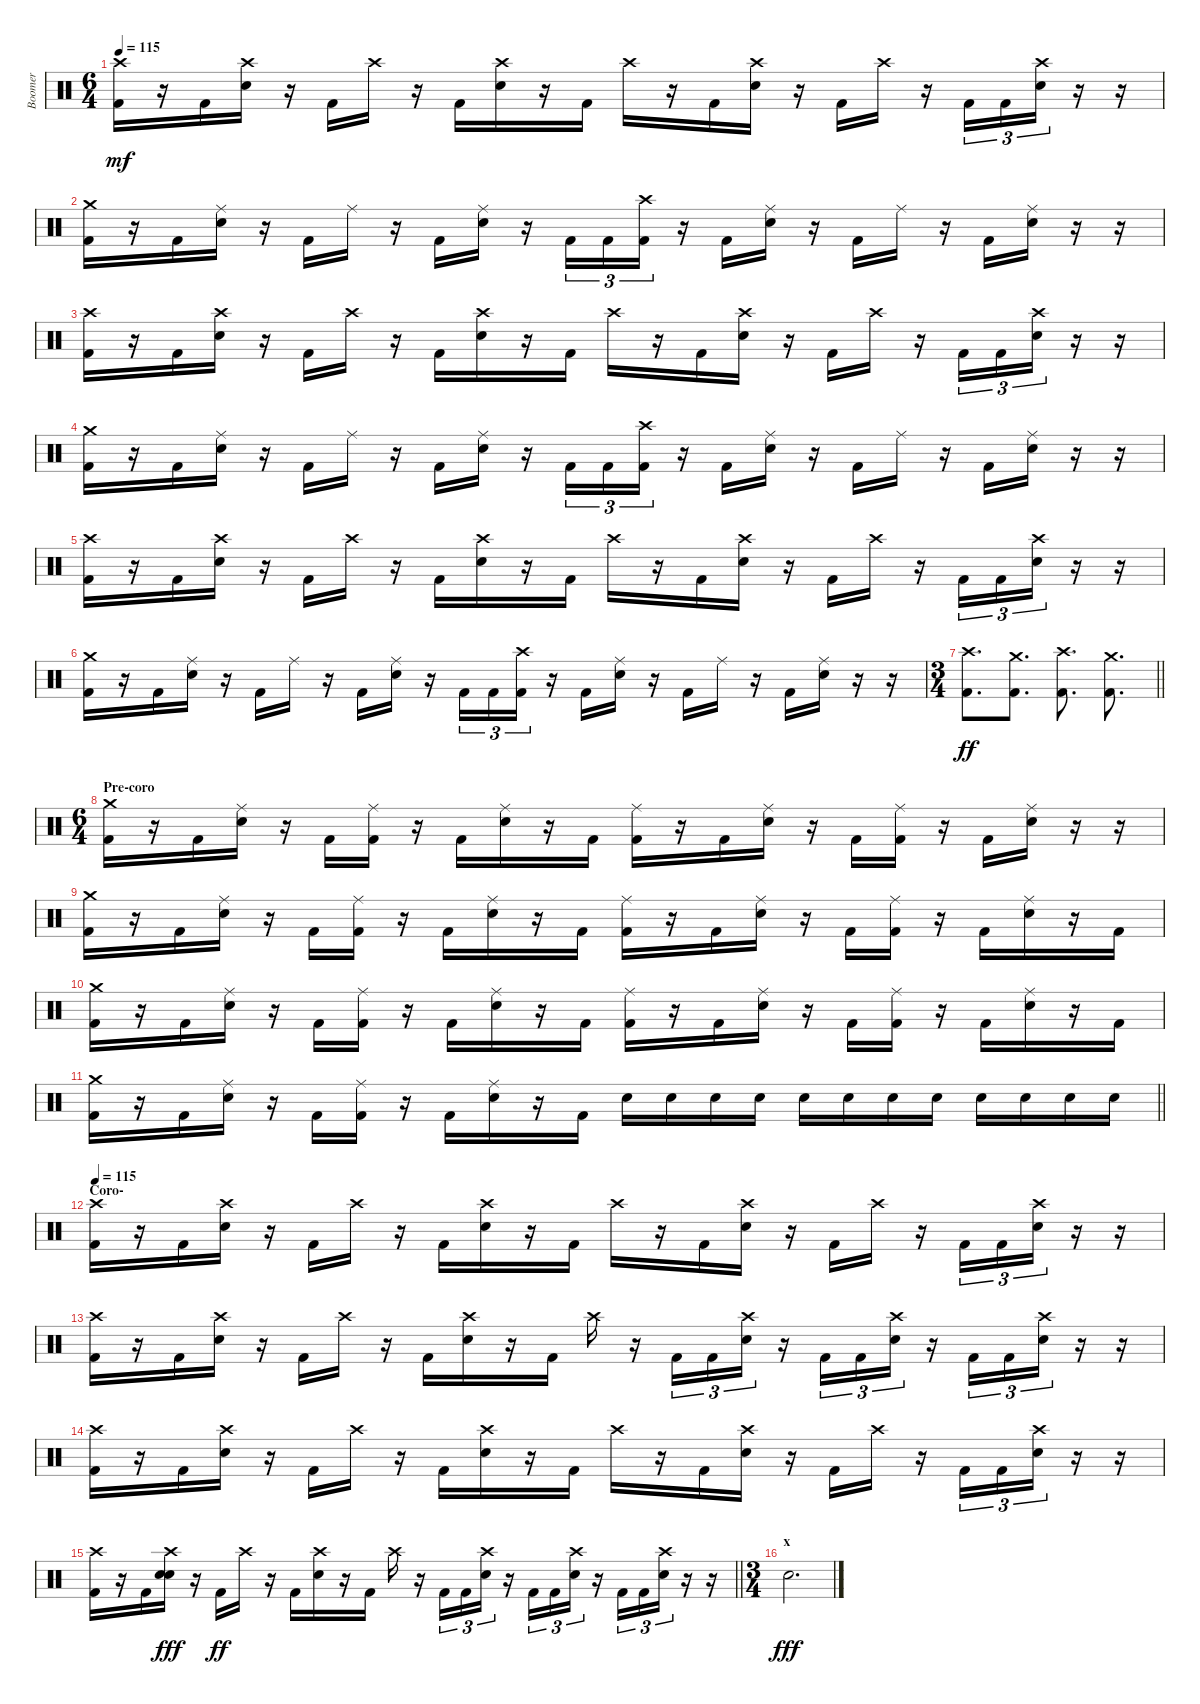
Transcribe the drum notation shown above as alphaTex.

\track ("Boomer" "Boomer") {instrument percussion}
\staff {score}
\articulation defaults
\ts (6 4)
\tempo 115
\clef neutral
\ks c
("Crash high (hit)" "Kick (hit) 2").16{dy mf} r.16 "Kick (hit) 2".16 ("Crash high (hit)" "Electric Snare (hit)").16 r.16 "Kick (hit) 2".16 "Crash high (hit)".16 r.16 "Kick (hit) 2".16 ("Crash high (hit)" "Electric Snare (hit)").16 r.16 "Kick (hit) 2".16 "Crash high (hit)".16 r.16 "Kick (hit) 2".16 ("Crash high (hit)" "Electric Snare (hit)").16 r.16 "Kick (hit) 2".16 "Crash high (hit)".16 r.16 "Kick (hit) 2".16{tu (3 2)} "Kick (hit) 2".16{tu (3 2)} ("Crash high (hit)" "Electric Snare (hit)").16{tu (3 2)} r.16 r.16 |
("Crash medium (hit)" "Kick (hit) 2").16 r.16 "Kick (hit) 2".16 ("Ride (middle)" "Electric Snare (hit)").16 r.16 "Kick (hit) 2".16 "Ride (middle)".16 r.16 "Kick (hit) 2".16 ("Ride (middle)" "Electric Snare (hit)").16 r.16 "Kick (hit) 2".16{tu (3 2)} "Kick (hit) 2".16{tu (3 2)} ("Crash high (hit)" "Kick (hit) 2").16{tu (3 2)} r.16 "Kick (hit) 2".16 ("Ride (middle)" "Electric Snare (hit)").16 r.16 "Kick (hit) 2".16 "Ride (middle)".16 r.16 "Kick (hit) 2".16 ("Ride (middle)" "Electric Snare (hit)").16 r.16 r.16 |
("Crash high (hit)" "Kick (hit) 2").16 r.16 "Kick (hit) 2".16 ("Crash high (hit)" "Electric Snare (hit)").16 r.16 "Kick (hit) 2".16 "Crash high (hit)".16 r.16 "Kick (hit) 2".16 ("Crash high (hit)" "Electric Snare (hit)").16 r.16 "Kick (hit) 2".16 "Crash high (hit)".16 r.16 "Kick (hit) 2".16 ("Crash high (hit)" "Electric Snare (hit)").16 r.16 "Kick (hit) 2".16 "Crash high (hit)".16 r.16 "Kick (hit) 2".16{tu (3 2)} "Kick (hit) 2".16{tu (3 2)} ("Crash high (hit)" "Electric Snare (hit)").16{tu (3 2)} r.16 r.16 |
("Crash medium (hit)" "Kick (hit) 2").16 r.16 "Kick (hit) 2".16 ("Ride (middle)" "Electric Snare (hit)").16 r.16 "Kick (hit) 2".16 "Ride (middle)".16 r.16 "Kick (hit) 2".16 ("Ride (middle)" "Electric Snare (hit)").16 r.16 "Kick (hit) 2".16{tu (3 2)} "Kick (hit) 2".16{tu (3 2)} ("Crash high (hit)" "Kick (hit) 2").16{tu (3 2)} r.16 "Kick (hit) 2".16 ("Ride (middle)" "Electric Snare (hit)").16 r.16 "Kick (hit) 2".16 "Ride (middle)".16 r.16 "Kick (hit) 2".16 ("Ride (middle)" "Electric Snare (hit)").16 r.16 r.16 |
("Crash high (hit)" "Kick (hit) 2").16 r.16 "Kick (hit) 2".16 ("Crash high (hit)" "Electric Snare (hit)").16 r.16 "Kick (hit) 2".16 "Crash high (hit)".16 r.16 "Kick (hit) 2".16 ("Crash high (hit)" "Electric Snare (hit)").16 r.16 "Kick (hit) 2".16 "Crash high (hit)".16 r.16 "Kick (hit) 2".16 ("Crash high (hit)" "Electric Snare (hit)").16 r.16 "Kick (hit) 2".16 "Crash high (hit)".16 r.16 "Kick (hit) 2".16{tu (3 2)} "Kick (hit) 2".16{tu (3 2)} ("Crash high (hit)" "Electric Snare (hit)").16{tu (3 2)} r.16 r.16 |
("Crash medium (hit)" "Kick (hit) 2").16 r.16 "Kick (hit) 2".16 ("Ride (middle)" "Electric Snare (hit)").16 r.16 "Kick (hit) 2".16 "Ride (middle)".16 r.16 "Kick (hit) 2".16 ("Ride (middle)" "Electric Snare (hit)").16 r.16 "Kick (hit) 2".16{tu (3 2)} "Kick (hit) 2".16{tu (3 2)} ("Crash high (hit)" "Kick (hit) 2").16{tu (3 2)} r.16 "Kick (hit) 2".16 ("Ride (middle)" "Electric Snare (hit)").16 r.16 "Kick (hit) 2".16 "Ride (middle)".16 r.16 "Kick (hit) 2".16 ("Ride (middle)" "Electric Snare (hit)").16 r.16 r.16 |
\ts (3 4)
\barLineRight lightlight
("Crash high (hit)" "Kick (hit) 2").8{d dy ff} ("Crash medium (hit)" "Kick (hit) 2").8{d} ("Crash high (hit)" "Kick (hit) 2").8{d} ("Crash medium (hit)" "Kick (hit) 2").8{d} |
\ts (6 4)
\section ("" "Pre-coro")
("Crash medium (hit)" "Kick (hit) 2").16 r.16 "Kick (hit) 2".16 ("Ride (middle)" "Electric Snare (hit)").16 r.16 "Kick (hit) 2".16 ("Ride (middle)" "Kick (hit) 2").16 r.16 "Kick (hit) 2".16 ("Ride (middle)" "Electric Snare (hit)").16 r.16 "Kick (hit) 2".16 ("Ride (middle)" "Kick (hit) 2").16 r.16 "Kick (hit) 2".16 ("Ride (middle)" "Electric Snare (hit)").16 r.16 "Kick (hit) 2".16 ("Ride (middle)" "Kick (hit) 2").16 r.16 "Kick (hit) 2".16 ("Ride (middle)" "Electric Snare (hit)").16 r.16 r.16 |
("Crash medium (hit)" "Kick (hit) 2").16 r.16 "Kick (hit) 2".16 ("Ride (middle)" "Electric Snare (hit)").16 r.16 "Kick (hit) 2".16 ("Ride (middle)" "Kick (hit) 2").16 r.16 "Kick (hit) 2".16 ("Ride (middle)" "Electric Snare (hit)").16 r.16 "Kick (hit) 2".16 ("Ride (middle)" "Kick (hit) 2").16 r.16 "Kick (hit) 2".16 ("Ride (middle)" "Electric Snare (hit)").16 r.16 "Kick (hit) 2".16 ("Ride (middle)" "Kick (hit) 2").16 r.16 "Kick (hit) 2".16 ("Ride (middle)" "Electric Snare (hit)").16 r.16 "Kick (hit) 2".16 |
("Crash medium (hit)" "Kick (hit) 2").16 r.16 "Kick (hit) 2".16 ("Ride (middle)" "Electric Snare (hit)").16 r.16 "Kick (hit) 2".16 ("Ride (middle)" "Kick (hit) 2").16 r.16 "Kick (hit) 2".16 ("Ride (middle)" "Electric Snare (hit)").16 r.16 "Kick (hit) 2".16 ("Ride (middle)" "Kick (hit) 2").16 r.16 "Kick (hit) 2".16 ("Ride (middle)" "Electric Snare (hit)").16 r.16 "Kick (hit) 2".16 ("Ride (middle)" "Kick (hit) 2").16 r.16 "Kick (hit) 2".16 ("Ride (middle)" "Electric Snare (hit)").16 r.16 "Kick (hit) 2".16 |
\barLineRight lightlight
("Crash medium (hit)" "Kick (hit) 2").16 r.16 "Kick (hit) 2".16 ("Ride (middle)" "Electric Snare (hit)").16 r.16 "Kick (hit) 2".16 ("Ride (middle)" "Kick (hit) 2").16 r.16 "Kick (hit) 2".16 ("Ride (middle)" "Electric Snare (hit)").16 r.16 "Kick (hit) 2".16 "Electric Snare (hit)".16 "Electric Snare (hit)".16 "Electric Snare (hit)".16 "Electric Snare (hit)".16 "Electric Snare (hit)".16 "Electric Snare (hit)".16 "Electric Snare (hit)".16 "Electric Snare (hit)".16 "Electric Snare (hit)".16 "Electric Snare (hit)".16 "Electric Snare (hit)".16 "Electric Snare (hit)".16 |
\section ("" "Coro-")
\tempo 115
("Crash high (hit)" "Kick (hit) 2").16 r.16 "Kick (hit) 2".16 ("Crash high (hit)" "Electric Snare (hit)").16 r.16 "Kick (hit) 2".16 "Crash high (hit)".16 r.16 "Kick (hit) 2".16 ("Crash high (hit)" "Electric Snare (hit)").16 r.16 "Kick (hit) 2".16 "Crash high (hit)".16 r.16 "Kick (hit) 2".16 ("Crash high (hit)" "Electric Snare (hit)").16 r.16 "Kick (hit) 2".16 "Crash high (hit)".16 r.16 "Kick (hit) 2".16{tu (3 2)} "Kick (hit) 2".16{tu (3 2)} ("Crash high (hit)" "Electric Snare (hit)").16{tu (3 2)} r.16 r.16 |
("Crash high (hit)" "Kick (hit) 2").16 r.16 "Kick (hit) 2".16 ("Crash high (hit)" "Electric Snare (hit)").16 r.16 "Kick (hit) 2".16 "Crash high (hit)".16 r.16 "Kick (hit) 2".16 ("Crash high (hit)" "Electric Snare (hit)").16 r.16 "Kick (hit) 2".16 "Crash high (hit)".16 r.16 "Kick (hit) 2".16{tu (3 2)} "Kick (hit) 2".16{tu (3 2)} ("Crash high (hit)" "Electric Snare (hit)").16{tu (3 2)} r.16 "Kick (hit) 2".16{tu (3 2)} "Kick (hit) 2".16{tu (3 2)} ("Crash high (hit)" "Electric Snare (hit)").16{tu (3 2)} r.16 "Kick (hit) 2".16{tu (3 2)} "Kick (hit) 2".16{tu (3 2)} ("Crash high (hit)" "Electric Snare (hit)").16{tu (3 2)} r.16 r.16 |
("Crash high (hit)" "Kick (hit) 2").16 r.16 "Kick (hit) 2".16 ("Crash high (hit)" "Electric Snare (hit)").16 r.16 "Kick (hit) 2".16 "Crash high (hit)".16 r.16 "Kick (hit) 2".16 ("Crash high (hit)" "Electric Snare (hit)").16 r.16 "Kick (hit) 2".16 "Crash high (hit)".16 r.16 "Kick (hit) 2".16 ("Crash high (hit)" "Electric Snare (hit)").16 r.16 "Kick (hit) 2".16 "Crash high (hit)".16 r.16 "Kick (hit) 2".16{tu (3 2)} "Kick (hit) 2".16{tu (3 2)} ("Crash high (hit)" "Electric Snare (hit)").16{tu (3 2)} r.16 r.16 |
\barLineRight lightlight
("Crash high (hit)" "Kick (hit) 2").16 r.16 "Kick (hit) 2".16 ("Crash high (hit)" "Electric Snare (hit)" "Snare (hit)").16{dy fff} r.16 "Kick (hit) 2".16{dy ff} "Crash high (hit)".16 r.16 "Kick (hit) 2".16 ("Crash high (hit)" "Electric Snare (hit)").16 r.16 "Kick (hit) 2".16 "Crash high (hit)".16 r.16 "Kick (hit) 2".16{tu (3 2)} "Kick (hit) 2".16{tu (3 2)} ("Crash high (hit)" "Electric Snare (hit)").16{tu (3 2)} r.16 "Kick (hit) 2".16{tu (3 2)} "Kick (hit) 2".16{tu (3 2)} ("Crash high (hit)" "Electric Snare (hit)").16{tu (3 2)} r.16 "Kick (hit) 2".16{tu (3 2)} "Kick (hit) 2".16{tu (3 2)} ("Crash high (hit)" "Electric Snare (hit)").16{tu (3 2)} r.16 r.16 |
\ts (3 4)
\section ("" "x")
"Electric Snare (hit)".2{d dy fff}
